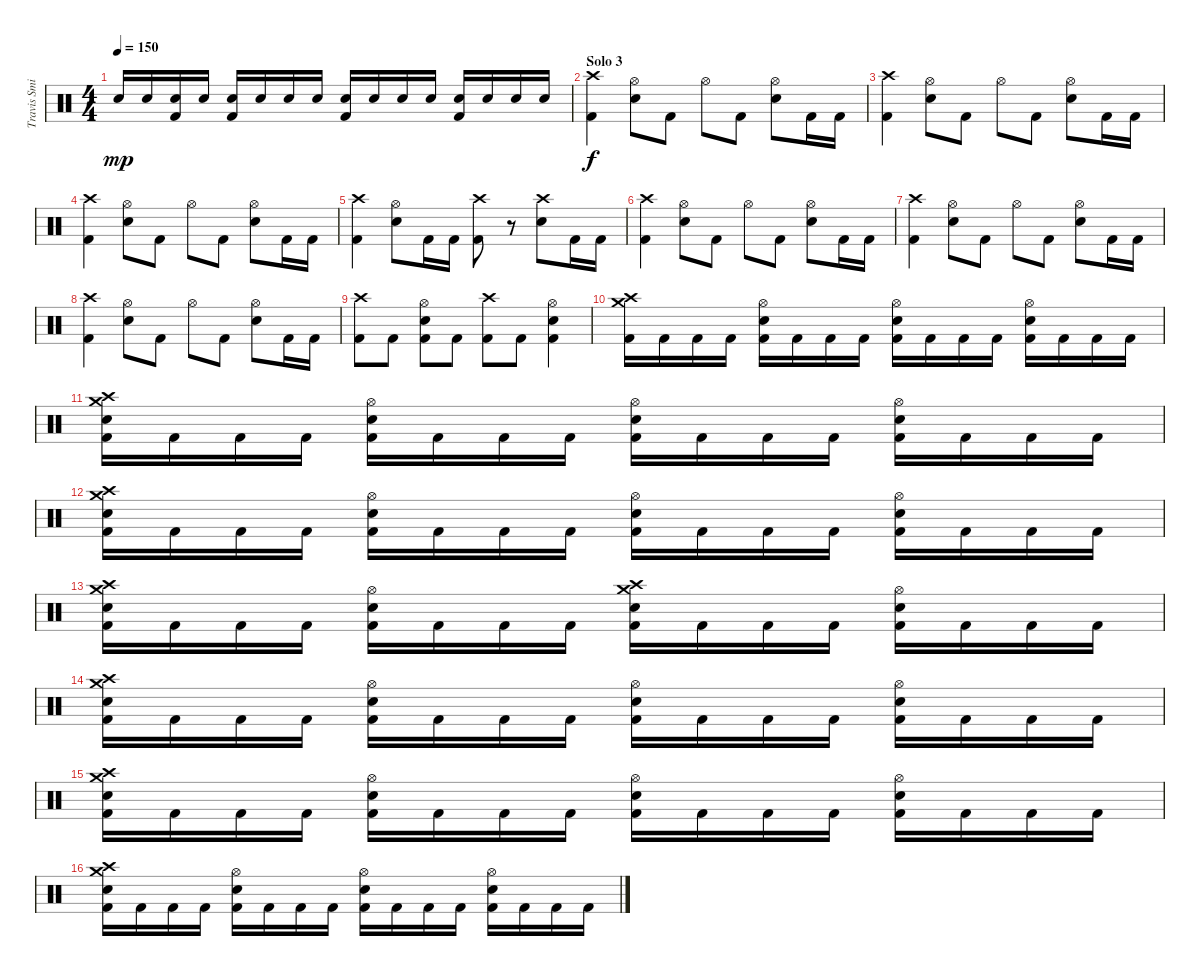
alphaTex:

\track ("Travis Smith" "Travis Smi") {instrument percussion}
\staff {score}
\articulation defaults
\ts (4 4)
\tempo 150
\clef neutral
\ks c "Electric Snare (hit)".16{dy mp} "Electric Snare (hit)".16
("Electric Snare (hit)" "Kick (hit) 2").16 "Electric Snare (hit)".16 ("Electric Snare (hit)" "Kick (hit) 2").16 "Electric Snare (hit)".16 "Electric Snare (hit)".16 "Electric Snare (hit)".16 ("Electric Snare (hit)" "Kick (hit) 2").16 "Electric Snare (hit)".16 "Electric Snare (hit)".16 "Electric Snare (hit)".16 ("Electric Snare (hit)" "Kick (hit) 2").16 "Electric Snare (hit)".16 "Electric Snare (hit)".16 "Electric Snare (hit)".16 |
\section ("" "Solo 3")
("Crash high (hit)" "Kick (hit) 2").4{dy f} ("Hi-Hat (open)" "Electric Snare (hit)").8 "Kick (hit) 2".8 "Hi-Hat (open)".8 "Kick (hit) 2".8 ("Hi-Hat (open)" "Electric Snare (hit)").8 "Kick (hit) 2".16 "Kick (hit) 2".16 |
("Crash high (hit)" "Kick (hit) 2").4 ("Hi-Hat (open)" "Electric Snare (hit)").8 "Kick (hit) 2".8 "Hi-Hat (open)".8 "Kick (hit) 2".8 ("Hi-Hat (open)" "Electric Snare (hit)").8 "Kick (hit) 2".16 "Kick (hit) 2".16 |
("Crash high (hit)" "Kick (hit) 2").4 ("Hi-Hat (open)" "Electric Snare (hit)").8 "Kick (hit) 2".8 "Hi-Hat (open)".8 "Kick (hit) 2".8 ("Hi-Hat (open)" "Electric Snare (hit)").8 "Kick (hit) 2".16 "Kick (hit) 2".16 |
("Crash high (hit)" "Kick (hit) 2").4 ("Hi-Hat (open)" "Electric Snare (hit)").8 "Kick (hit) 2".16 "Kick (hit) 2".16 ("Crash high (hit)" "Kick (hit) 2").8 r.8 ("Crash high (hit)" "Electric Snare (hit)").8 "Kick (hit) 2".16 "Kick (hit) 2".16 |
("Crash high (hit)" "Kick (hit) 2").4 ("Hi-Hat (open)" "Electric Snare (hit)").8 "Kick (hit) 2".8 "Hi-Hat (open)".8 "Kick (hit) 2".8 ("Hi-Hat (open)" "Electric Snare (hit)").8 "Kick (hit) 2".16 "Kick (hit) 2".16 |
("Crash high (hit)" "Kick (hit) 2").4 ("Hi-Hat (open)" "Electric Snare (hit)").8 "Kick (hit) 2".8 "Hi-Hat (open)".8 "Kick (hit) 2".8 ("Hi-Hat (open)" "Electric Snare (hit)").8 "Kick (hit) 2".16 "Kick (hit) 2".16 |
("Crash high (hit)" "Kick (hit) 2").4 ("Hi-Hat (open)" "Electric Snare (hit)").8 "Kick (hit) 2".8 "Hi-Hat (open)".8 "Kick (hit) 2".8 ("Hi-Hat (open)" "Electric Snare (hit)").8 "Kick (hit) 2".16 "Kick (hit) 2".16 |
("Crash high (hit)" "Kick (hit) 2").8 "Kick (hit) 2".8 ("Hi-Hat (open)" "Electric Snare (hit)" "Kick (hit) 2").8 "Kick (hit) 2".8 ("Crash high (hit)" "Kick (hit) 2").8 "Kick (hit) 2".8 ("Hi-Hat (open)" "Electric Snare (hit)" "Kick (hit) 2").4 |
("Crash high (hit)" "Crash medium (hit)" "Kick (hit) 2").16 "Kick (hit) 2".16 "Kick (hit) 2".16 "Kick (hit) 2".16 ("Hi-Hat (open)" "Electric Snare (hit)" "Kick (hit) 2").16 "Kick (hit) 2".16 "Kick (hit) 2".16 "Kick (hit) 2".16 ("Hi-Hat (open)" "Electric Snare (hit)" "Kick (hit) 2").16 "Kick (hit) 2".16 "Kick (hit) 2".16 "Kick (hit) 2".16 ("Hi-Hat (open)" "Electric Snare (hit)" "Kick (hit) 2").16 "Kick (hit) 2".16 "Kick (hit) 2".16 "Kick (hit) 2".16 |
("Crash high (hit)" "Crash medium (hit)" "Electric Snare (hit)" "Kick (hit) 2").16 "Kick (hit) 2".16 "Kick (hit) 2".16 "Kick (hit) 2".16 ("Hi-Hat (open)" "Electric Snare (hit)" "Kick (hit) 2").16 "Kick (hit) 2".16 "Kick (hit) 2".16 "Kick (hit) 2".16 ("Hi-Hat (open)" "Electric Snare (hit)" "Kick (hit) 2").16 "Kick (hit) 2".16 "Kick (hit) 2".16 "Kick (hit) 2".16 ("Hi-Hat (open)" "Electric Snare (hit)" "Kick (hit) 2").16 "Kick (hit) 2".16 "Kick (hit) 2".16 "Kick (hit) 2".16 |
("Crash high (hit)" "Crash medium (hit)" "Electric Snare (hit)" "Kick (hit) 2").16 "Kick (hit) 2".16 "Kick (hit) 2".16 "Kick (hit) 2".16 ("Hi-Hat (open)" "Electric Snare (hit)" "Kick (hit) 2").16 "Kick (hit) 2".16 "Kick (hit) 2".16 "Kick (hit) 2".16 ("Hi-Hat (open)" "Electric Snare (hit)" "Kick (hit) 2").16 "Kick (hit) 2".16 "Kick (hit) 2".16 "Kick (hit) 2".16 ("Hi-Hat (open)" "Electric Snare (hit)" "Kick (hit) 2").16 "Kick (hit) 2".16 "Kick (hit) 2".16 "Kick (hit) 2".16 |
("Crash high (hit)" "Crash medium (hit)" "Electric Snare (hit)" "Kick (hit) 2").16 "Kick (hit) 2".16 "Kick (hit) 2".16 "Kick (hit) 2".16 ("Hi-Hat (open)" "Electric Snare (hit)" "Kick (hit) 2").16 "Kick (hit) 2".16 "Kick (hit) 2".16 "Kick (hit) 2".16 ("Crash high (hit)" "Crash medium (hit)" "Electric Snare (hit)" "Kick (hit) 2").16 "Kick (hit) 2".16 "Kick (hit) 2".16 "Kick (hit) 2".16 ("Hi-Hat (open)" "Electric Snare (hit)" "Kick (hit) 2").16 "Kick (hit) 2".16 "Kick (hit) 2".16 "Kick (hit) 2".16 |
("Crash high (hit)" "Crash medium (hit)" "Electric Snare (hit)" "Kick (hit) 2").16 "Kick (hit) 2".16 "Kick (hit) 2".16 "Kick (hit) 2".16 ("Hi-Hat (open)" "Electric Snare (hit)" "Kick (hit) 2").16 "Kick (hit) 2".16 "Kick (hit) 2".16 "Kick (hit) 2".16 ("Hi-Hat (open)" "Electric Snare (hit)" "Kick (hit) 2").16 "Kick (hit) 2".16 "Kick (hit) 2".16 "Kick (hit) 2".16 ("Hi-Hat (open)" "Electric Snare (hit)" "Kick (hit) 2").16 "Kick (hit) 2".16 "Kick (hit) 2".16 "Kick (hit) 2".16 |
("Crash high (hit)" "Crash medium (hit)" "Electric Snare (hit)" "Kick (hit) 2").16 "Kick (hit) 2".16 "Kick (hit) 2".16 "Kick (hit) 2".16 ("Hi-Hat (open)" "Electric Snare (hit)" "Kick (hit) 2").16 "Kick (hit) 2".16 "Kick (hit) 2".16 "Kick (hit) 2".16 ("Hi-Hat (open)" "Electric Snare (hit)" "Kick (hit) 2").16 "Kick (hit) 2".16 "Kick (hit) 2".16 "Kick (hit) 2".16 ("Hi-Hat (open)" "Electric Snare (hit)" "Kick (hit) 2").16 "Kick (hit) 2".16 "Kick (hit) 2".16 "Kick (hit) 2".16 |
("Crash high (hit)" "Crash medium (hit)" "Electric Snare (hit)" "Kick (hit) 2").16 "Kick (hit) 2".16 "Kick (hit) 2".16 "Kick (hit) 2".16 ("Hi-Hat (open)" "Electric Snare (hit)" "Kick (hit) 2").16 "Kick (hit) 2".16 "Kick (hit) 2".16 "Kick (hit) 2".16 ("Hi-Hat (open)" "Electric Snare (hit)" "Kick (hit) 2").16 "Kick (hit) 2".16 "Kick (hit) 2".16 "Kick (hit) 2".16 ("Hi-Hat (open)" "Electric Snare (hit)" "Kick (hit) 2").16 "Kick (hit) 2".16 "Kick (hit) 2".16 "Kick (hit) 2".16
